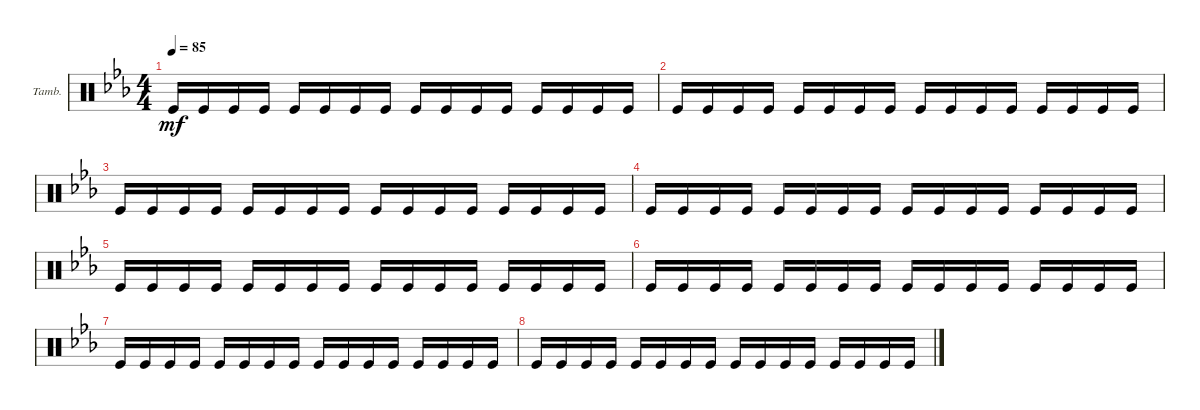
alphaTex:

\defaultSystemsLayout 4
\bracketExtendMode groupsimilarinstruments
\firstSystemTrackNameOrientation horizontal
\otherSystemsTrackNameOrientation horizontal
\track ("Tambourine" "Tamb.") {instrument percussion}
\staff {score}
\articulation defaults
\ts (4 4)
\tempo 85
\clef neutral
\ks eb "Kick (hit)".16{dy mf} "Kick (hit)".16 "Kick (hit)".16 "Kick (hit)".16 "Kick (hit)".16 "Kick (hit)".16 "Kick (hit)".16 "Kick (hit)".16 "Kick (hit)".16 "Kick (hit)".16 "Kick (hit)".16 "Kick (hit)".16 "Kick (hit)".16 "Kick (hit)".16 "Kick (hit)".16 "Kick (hit)".16
|
"Kick (hit)".16 "Kick (hit)".16 "Kick (hit)".16 "Kick (hit)".16 "Kick (hit)".16 "Kick (hit)".16 "Kick (hit)".16 "Kick (hit)".16 "Kick (hit)".16 "Kick (hit)".16 "Kick (hit)".16 "Kick (hit)".16 "Kick (hit)".16 "Kick (hit)".16 "Kick (hit)".16 "Kick (hit)".16 |
"Kick (hit)".16 "Kick (hit)".16 "Kick (hit)".16 "Kick (hit)".16 "Kick (hit)".16 "Kick (hit)".16 "Kick (hit)".16 "Kick (hit)".16 "Kick (hit)".16 "Kick (hit)".16 "Kick (hit)".16 "Kick (hit)".16 "Kick (hit)".16 "Kick (hit)".16 "Kick (hit)".16 "Kick (hit)".16 |
"Kick (hit)".16 "Kick (hit)".16 "Kick (hit)".16 "Kick (hit)".16 "Kick (hit)".16 "Kick (hit)".16 "Kick (hit)".16 "Kick (hit)".16 "Kick (hit)".16 "Kick (hit)".16 "Kick (hit)".16 "Kick (hit)".16 "Kick (hit)".16 "Kick (hit)".16 "Kick (hit)".16 "Kick (hit)".16 |
\scale
0.445714 "Kick (hit)".16 "Kick (hit)".16 "Kick (hit)".16 "Kick (hit)".16 "Kick (hit)".16 "Kick (hit)".16 "Kick (hit)".16 "Kick (hit)".16 "Kick (hit)".16 "Kick (hit)".16 "Kick (hit)".16 "Kick (hit)".16 "Kick (hit)".16 "Kick (hit)".16 "Kick (hit)".16 "Kick (hit)".16 |
\scale
0.554559 "Kick (hit)".16 "Kick (hit)".16 "Kick (hit)".16 "Kick (hit)".16 "Kick (hit)".16 "Kick (hit)".16 "Kick (hit)".16 "Kick (hit)".16 "Kick (hit)".16 "Kick (hit)".16 "Kick (hit)".16 "Kick (hit)".16 "Kick (hit)".16 "Kick (hit)".16 "Kick (hit)".16 "Kick (hit)".16 |
"Kick (hit)".16 "Kick (hit)".16 "Kick (hit)".16 "Kick (hit)".16 "Kick (hit)".16 "Kick (hit)".16 "Kick (hit)".16 "Kick (hit)".16 "Kick (hit)".16 "Kick (hit)".16 "Kick (hit)".16 "Kick (hit)".16 "Kick (hit)".16 "Kick (hit)".16 "Kick (hit)".16 "Kick (hit)".16 |
"Kick (hit)".16 "Kick (hit)".16 "Kick (hit)".16 "Kick (hit)".16 "Kick (hit)".16 "Kick (hit)".16 "Kick (hit)".16 "Kick (hit)".16 "Kick (hit)".16 "Kick (hit)".16 "Kick (hit)".16 "Kick (hit)".16 "Kick (hit)".16 "Kick (hit)".16 "Kick (hit)".16 "Kick (hit)".16
